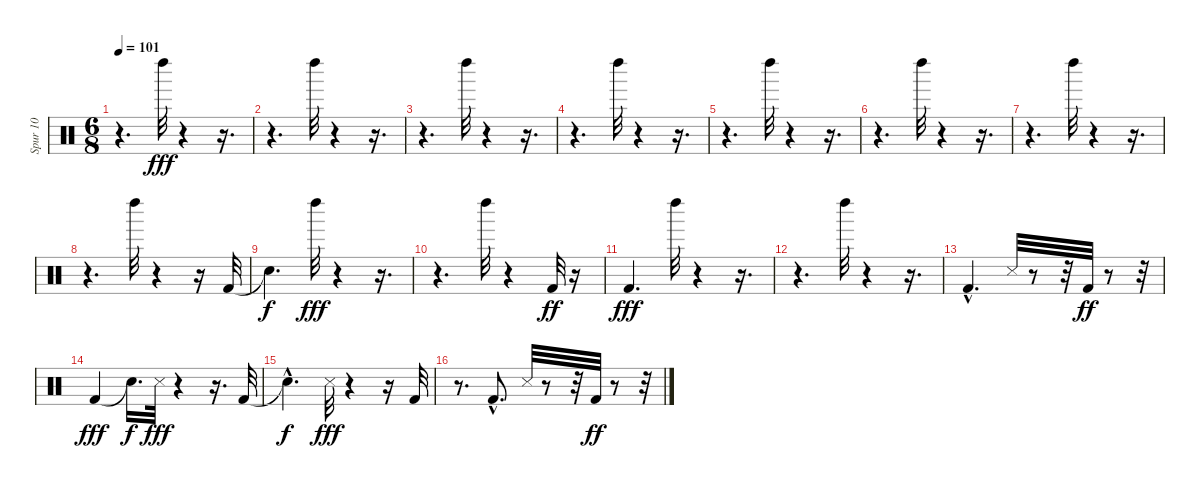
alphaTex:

\track ("Spur 10" "Spur 10") {instrument percussion}
\staff {score}
\articulation defaults
\ts (6 8)
\tempo 101
\clef neutral
\ks c
r.4{d dy fff} "Left Maraca (hit)".32 r.4 r.16{d} |
r.4{d} "Left Maraca (hit)".32 r.4 r.16{d} |
r.4{d} "Left Maraca (hit)".32 r.4 r.16{d} |
r.4{d} "Left Maraca (hit)".32 r.4 r.16{d} |
r.4{d} "Left Maraca (hit)".32 r.4 r.16{d} |
r.4{d} "Left Maraca (hit)".32 r.4 r.16{d} |
r.4{d} "Left Maraca (hit)".32 r.4 r.16{d} |
r.4{d} "Left Maraca (hit)".32 r.4 r.16 "Kick (hit) 2".32 |
"Snare (hit)"{t}.4{d dy f} "Left Maraca (hit)".32{dy fff} r.4 r.16{d} |
r.4{d} "Left Maraca (hit)".32 r.4 "Kick (hit) 2".32{dy ff} r.16 |
"Kick (hit) 2".4{d dy fff} "Left Maraca (hit)".32 r.4 r.16{d} |
r.4{d} "Left Maraca (hit)".32 r.4 r.16{d} |
"Kick (hit) 2"{hac}.4{d} "Snare (side stick) 3".32 r.8 r.32 "Kick (hit) 2".32{dy ff} r.8 r.32 |
"Kick (hit) 2".4{dy fff} "Snare (hit)"{t}.16{d dy f} "Snare (side stick) 3".32{dy fff} r.4 r.16{d} "Kick (hit) 2".32 |
"Snare (hit)"{hac t}.4{d dy f} "Snare (side stick) 3".32{dy fff} r.4 r.16 "Kick (hit) 2".32 |
r.8{d} "Kick (hit) 2"{hac}.8{d} "Snare (side stick) 3".32 r.8 r.32 "Kick (hit) 2".32{dy ff} r.8 r.32
